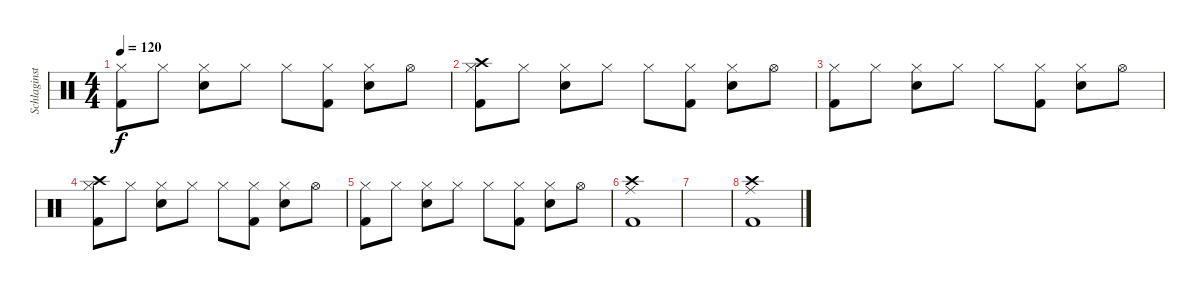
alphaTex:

\track ("Schlaginstrumente - Auswahl" "Schlaginst") {instrument percussion}
\staff {score}
\articulation defaults
\ts (4 4)
\tempo 120
\clef neutral
\ks c
("Hi-Hat (closed)" "Kick (hit) 2").8{dy f} "Hi-Hat (closed)".8 ("Hi-Hat (closed)" "Snare (hit) 2").8 "Hi-Hat (closed)".8 "Hi-Hat (closed)".8 ("Hi-Hat (closed)" "Kick (hit) 2").8 ("Hi-Hat (closed)" "Snare (hit) 2").8 "Hi-Hat (open)".8 |
("Crash high (hit)" "Hi-Hat (closed)" "Kick (hit) 2").8 "Hi-Hat (closed)".8 ("Hi-Hat (closed)" "Snare (hit) 2").8 "Hi-Hat (closed)".8 "Hi-Hat (closed)".8 ("Hi-Hat (closed)" "Kick (hit) 2").8 ("Hi-Hat (closed)" "Snare (hit) 2").8 "Hi-Hat (open)".8 |
("Hi-Hat (closed)" "Kick (hit) 2").8 "Hi-Hat (closed)".8 ("Hi-Hat (closed)" "Snare (hit) 2").8 "Hi-Hat (closed)".8 "Hi-Hat (closed)".8 ("Hi-Hat (closed)" "Kick (hit) 2").8 ("Hi-Hat (closed)" "Snare (hit) 2").8 "Hi-Hat (open)".8 |
("Crash high (hit)" "Hi-Hat (closed)" "Kick (hit) 2").8 "Hi-Hat (closed)".8 ("Hi-Hat (closed)" "Snare (hit) 2").8 "Hi-Hat (closed)".8 "Hi-Hat (closed)".8 ("Hi-Hat (closed)" "Kick (hit) 2").8 ("Hi-Hat (closed)" "Snare (hit) 2").8 "Hi-Hat (open)".8 |
("Hi-Hat (closed)" "Kick (hit) 2").8 "Hi-Hat (closed)".8 ("Hi-Hat (closed)" "Snare (hit) 2").8 "Hi-Hat (closed)".8 "Hi-Hat (closed)".8 ("Hi-Hat (closed)" "Kick (hit) 2").8 ("Hi-Hat (closed)" "Snare (hit) 2").8 "Hi-Hat (open)".8 |
("Ride (middle)" "Crash high (hit)" "Kick (hit) 2").1 |
|
("Ride (middle)" "Crash high (hit)" "Kick (hit) 2").1
